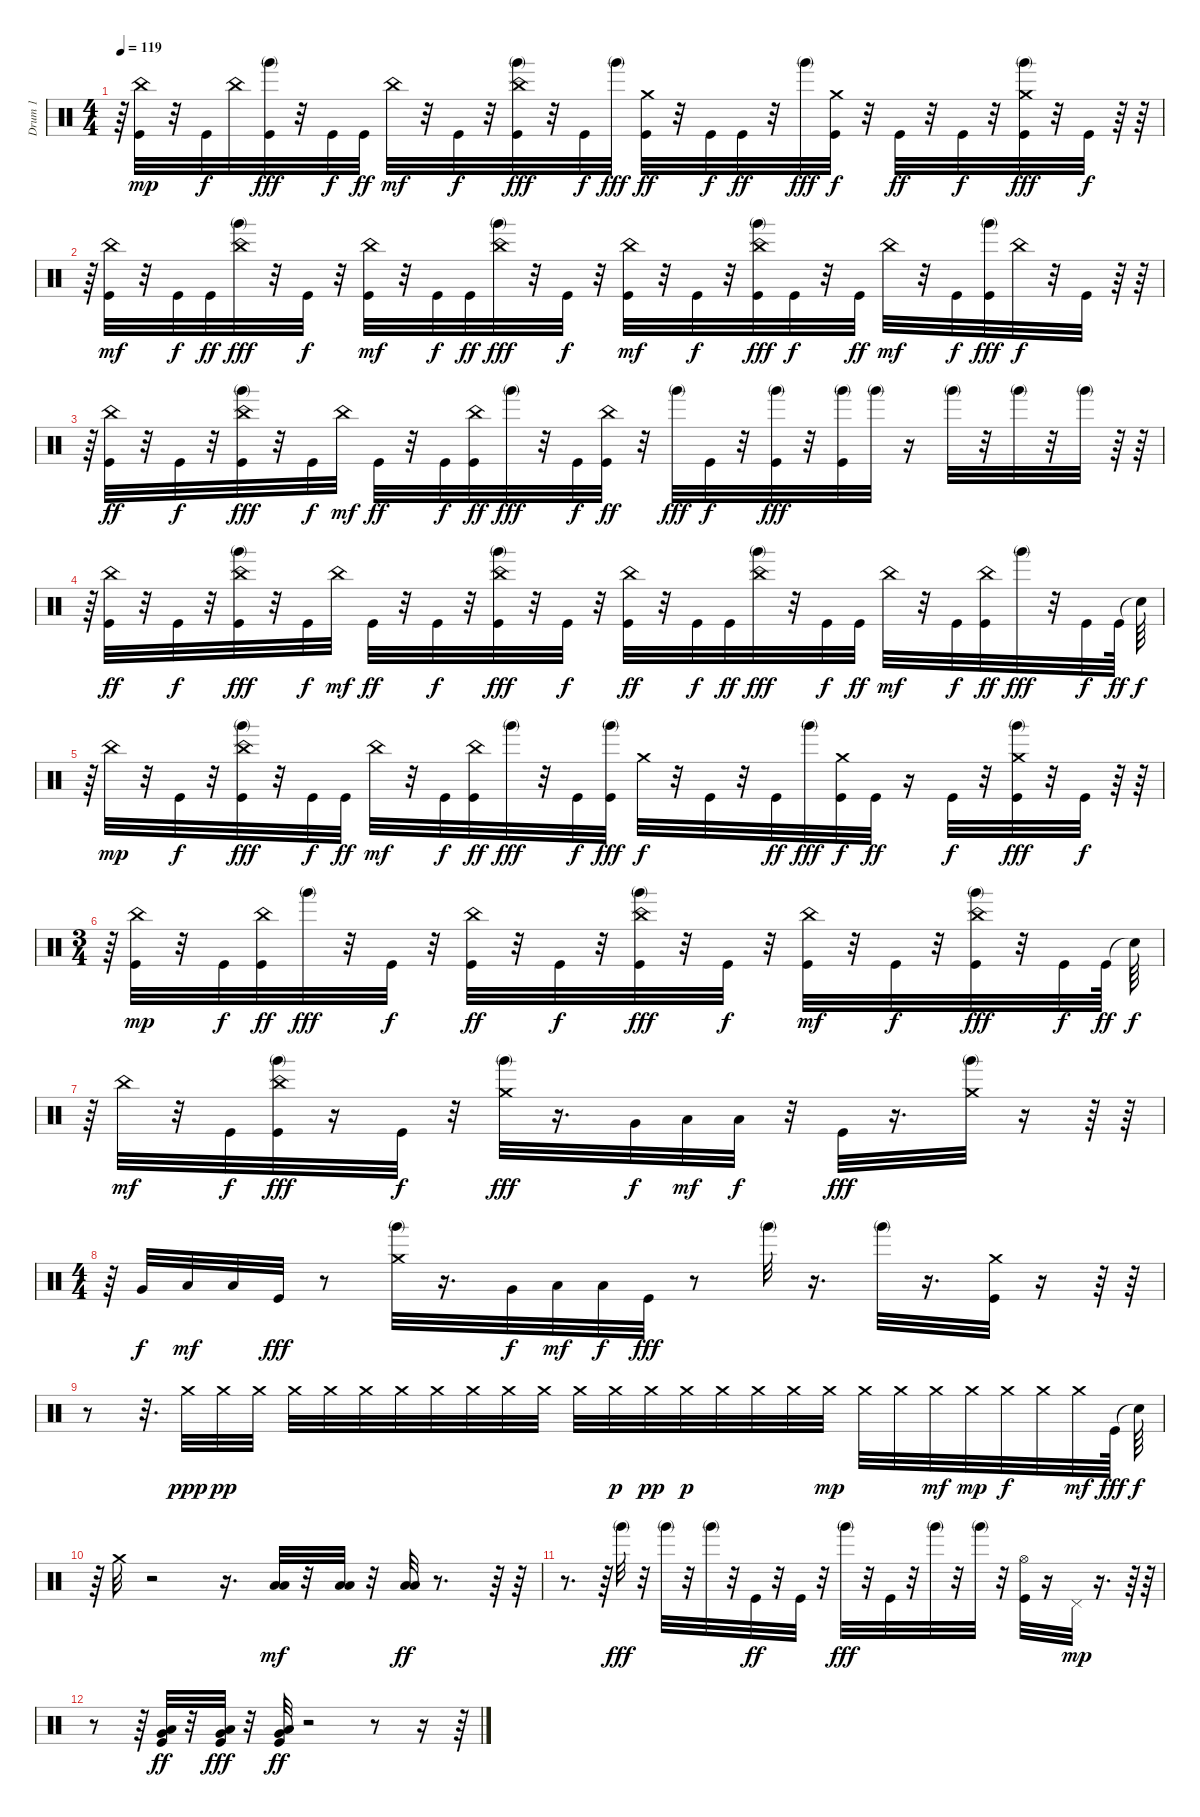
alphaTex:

\track ("Drum 1                          " "Drum 1    ") {instrument percussion}
\staff {score}
\articulation defaults
\ts (4 4)
\tempo 119
\clef neutral
\ks c
r.64{dy f} ("Kick (hit)" "China (hit)").32{dy mp} r.32 "Kick (hit)".32{dy f} "China (hit)".32 ("Kick (hit)" "Hand (mute) 2").32{dy fff} r.32 "Kick (hit)".32{dy f} "Kick (hit)".32{dy ff} "China (hit)".32{dy mf} r.32 "Kick (hit)".32{dy f} r.32 ("Kick (hit)" "China (hit)" "Hand (mute) 2").32{dy fff} r.32 "Kick (hit)".32{dy f} "Hand (mute) 2".32{dy fff} ("Crash medium (hit)" "Kick (hit)").32{dy ff} r.32 "Kick (hit)".32{dy f} "Kick (hit)".32{dy ff} r.32 "Hand (mute) 2".32{dy fff} ("Crash medium (hit)" "Kick (hit)").32{dy f} r.32 "Kick (hit)".32{dy ff} r.32 "Kick (hit)".32{dy f} r.32 ("Kick (hit)" "Crash medium (hit)" "Hand (mute) 2").32{dy fff} r.32 "Kick (hit)".32{dy f} r.64 r.64 |
r.64 ("Kick (hit)" "China (hit)").32{dy mf} r.32 "Kick (hit)".32{dy f} "Kick (hit)".32{dy ff} ("China (hit)" "Hand (mute) 2").32{dy fff} r.32 "Kick (hit)".32{dy f} r.32 ("Kick (hit)" "China (hit)").32{dy mf} r.32 "Kick (hit)".32{dy f} "Kick (hit)".32{dy ff} ("China (hit)" "Hand (mute) 2").32{dy fff} r.32 "Kick (hit)".32{dy f} r.32 ("Kick (hit)" "China (hit)").32{dy mf} r.32 "Kick (hit)".32{dy f} r.32 ("Kick (hit)" "China (hit)" "Hand (mute) 2").32{dy fff} "Kick (hit)".32{dy f} r.32 "Kick (hit)".32{dy ff} "China (hit)".32{dy mf} r.32 "Kick (hit)".32{dy f} ("Kick (hit)" "Hand (mute) 2").32{dy fff} "China (hit)".32{dy f} r.32 "Kick (hit)".32 r.64 r.64 |
r.64 ("China (hit)" "Kick (hit)").32{dy ff} r.32 "Kick (hit)".32{dy f} r.32 ("Kick (hit)" "China (hit)" "Hand (mute) 2").32{dy fff} r.32 "Kick (hit)".32{dy f} "China (hit)".32{dy mf} "Kick (hit)".32{dy ff} r.32 "Kick (hit)".32{dy f} ("China (hit)" "Kick (hit)").32{dy ff} "Hand (mute) 2".32{dy fff} r.32 "Kick (hit)".32{dy f} ("China (hit)" "Kick (hit)").32{dy ff} r.32 "Hand (mute) 2".32{dy fff} "Kick (hit)".32{dy f} r.32 ("Kick (hit)" "Hand (mute) 2").32{dy fff} r.32 ("Kick (hit)" "Hand (mute) 2").32 "Hand (mute) 2".32 r.16 "Hand (mute) 2".32 r.32 "Hand (mute) 2".32 r.32 "Hand (mute) 2".32 r.64 r.64 |
r.64 ("China (hit)" "Kick (hit)").32{dy ff} r.32 "Kick (hit)".32{dy f} r.32 ("China (hit)" "Kick (hit)" "Hand (mute) 2").32{dy fff} r.32 "Kick (hit)".32{dy f} "China (hit)".32{dy mf} "Kick (hit)".32{dy ff} r.32 "Kick (hit)".32{dy f} r.32 ("China (hit)" "Kick (hit)" "Hand (mute) 2").32{dy fff} r.32 "Kick (hit)".32{dy f} r.32 ("China (hit)" "Kick (hit)").32{dy ff} r.32 "Kick (hit)".32{dy f} "Kick (hit)".32{dy ff} ("China (hit)" "Hand (mute) 2").32{dy fff} r.32 "Kick (hit)".32{dy f} "Kick (hit)".32{dy ff} "China (hit)".32{dy mf} r.32 "Kick (hit)".32{dy f} ("China (hit)" "Kick (hit)").32{dy ff} "Hand (mute) 2".32{dy fff} r.32 "Kick (hit)".32{dy f} "Kick (hit)".64{dy ff} "Snare (hit)"{t}.64{dy f} |
r.64 "China (hit)".32{dy mp} r.32 "Kick (hit)".32{dy f} r.32 ("China (hit)" "Kick (hit)" "Hand (mute) 2").32{dy fff} r.32 "Kick (hit)".32{dy f} "Kick (hit)".32{dy ff} "China (hit)".32{dy mf} r.32 "Kick (hit)".32{dy f} ("China (hit)" "Kick (hit)").32{dy ff} "Hand (mute) 2".32{dy fff} r.32 "Kick (hit)".32{dy f} ("Kick (hit)" "Hand (mute) 2").32{dy fff} "Crash medium (hit)".32{dy f} r.32 "Kick (hit)".32 r.32 "Kick (hit)".32{dy ff} "Hand (mute) 2".32{dy fff} ("Crash medium (hit)" "Kick (hit)").32{dy f} "Kick (hit)".32{dy ff} r.16 "Kick (hit)".32{dy f} r.32 ("Kick (hit)" "Crash medium (hit)" "Hand (mute) 2").32{dy fff} r.32 "Kick (hit)".32{dy f} r.64 r.64 |
\ts (3 4)
r.64 ("Kick (hit)" "China (hit)").32{dy mp} r.32 "Kick (hit)".32{dy f} ("China (hit)" "Kick (hit)").32{dy ff} "Hand (mute) 2".32{dy fff} r.32 "Kick (hit)".32{dy f} r.32 ("China (hit)" "Kick (hit)").32{dy ff} r.32 "Kick (hit)".32{dy f} r.32 ("Kick (hit)" "China (hit)" "Hand (mute) 2").32{dy fff} r.32 "Kick (hit)".32{dy f} r.32 ("Kick (hit)" "China (hit)").32{dy mf} r.32 "Kick (hit)".32{dy f} r.32 ("Kick (hit)" "China (hit)" "Hand (mute) 2").32{dy fff} r.32 "Kick (hit)".32{dy f} "Kick (hit)".64{dy ff} "Snare (hit)"{t}.64{dy f} |
r.64 "China (hit)".32{dy mf} r.32 "Kick (hit)".32{dy f} ("China (hit)" "Kick (hit)" "Hand (mute) 2").32{dy fff} r.16 "Kick (hit)".32{dy f} r.32 ("Hand (mute) 2" "Crash medium (hit)").32{dy fff} r.16{d} "Very Low Tom (hit)".32{dy f} "Low Tom (hit)".32{dy mf} "Low Floor Tom (hit)".32{dy f} r.32 "Kick (hit)".32{dy fff} r.16{d} ("Hand (mute) 2" "Crash medium (hit)").32 r.16 r.64 r.64 |
\ts (4 4)
r.64 "Very Low Tom (hit)".32{dy f} "Low Tom (hit)".32{dy mf} "Low Floor Tom (hit)".32 "Kick (hit)".32{dy fff} r.8 ("Hand (mute) 2" "Crash medium (hit)").32 r.16{d} "Very Low Tom (hit)".32{dy f} "Low Tom (hit)".32{dy mf} "Low Floor Tom (hit)".32{dy f} "Kick (hit)".32{dy fff} r.8 "Hand (mute) 2".32 r.16{d} "Hand (mute) 2".32 r.16{d} ("Crash medium (hit)" "Kick (hit)").32 r.16 r.64 r.64 |
r.8 r.32{d} "Crash medium (hit)".32{dy ppp} "Crash medium (hit)".32{dy pp} "Crash medium (hit)".32 "Crash medium (hit)".32 "Crash medium (hit)".32 "Crash medium (hit)".32 "Crash medium (hit)".32 "Crash medium (hit)".32 "Crash medium (hit)".32 "Crash medium (hit)".32 "Crash medium (hit)".32 "Crash medium (hit)".32 "Crash medium (hit)".32{dy p} "Crash medium (hit)".32{dy pp} "Crash medium (hit)".32{dy p} "Crash medium (hit)".32 "Crash medium (hit)".32 "Crash medium (hit)".32 "Crash medium (hit)".32{dy mp} "Crash medium (hit)".32 "Crash medium (hit)".32 "Crash medium (hit)".32{dy mf} "Crash medium (hit)".32{dy mp} "Crash medium (hit)".32{dy f} "Crash medium (hit)".32 "Crash medium (hit)".32{dy mf} "Kick (hit)".64{dy fff} "Snare (hit)"{t}.64{dy f} |
r.64 "Crash medium (hit)".32 r.2 r.16{d} ("Low Floor Tom (hit)" "Low Tom (hit)").32{dy mf} r.32 ("Low Tom (hit)" "Low Floor Tom (hit)").32 r.32 ("Low Floor Tom (hit)" "Low Tom (hit)").32{dy ff} r.8{d} r.64 r.64 |
r.8{d} r.64 "Hand (mute) 2".32{dy fff} r.32 "Hand (mute) 2".32 r.32 "Hand (mute) 2".32 r.32 "Kick (hit)".32{dy ff} r.32 "Kick (hit)".32 r.32 "Hand (mute) 2".32{dy fff} r.32 "Kick (hit)".32 r.32 "Hand (mute) 2".32 r.32 "Hand (mute) 2".32 r.32 ("Hi-Hat (open)" "Kick (hit)").32 r.16 "Pedal Hi-Hat (hit)".32{dy mp} r.16{d} r.64 r.64 |
r.8 r.64 ("Kick (hit)" "Low Floor Tom (hit)" "Very Low Tom (hit)").32{dy ff} r.32 ("Kick (hit)" "Low Floor Tom (hit)" "Very Low Tom (hit)").32{dy fff} r.32 ("Low Floor Tom (hit)" "Kick (hit)" "Very Low Tom (hit)").32{dy ff} r.2 r.8 r.16 r.64
